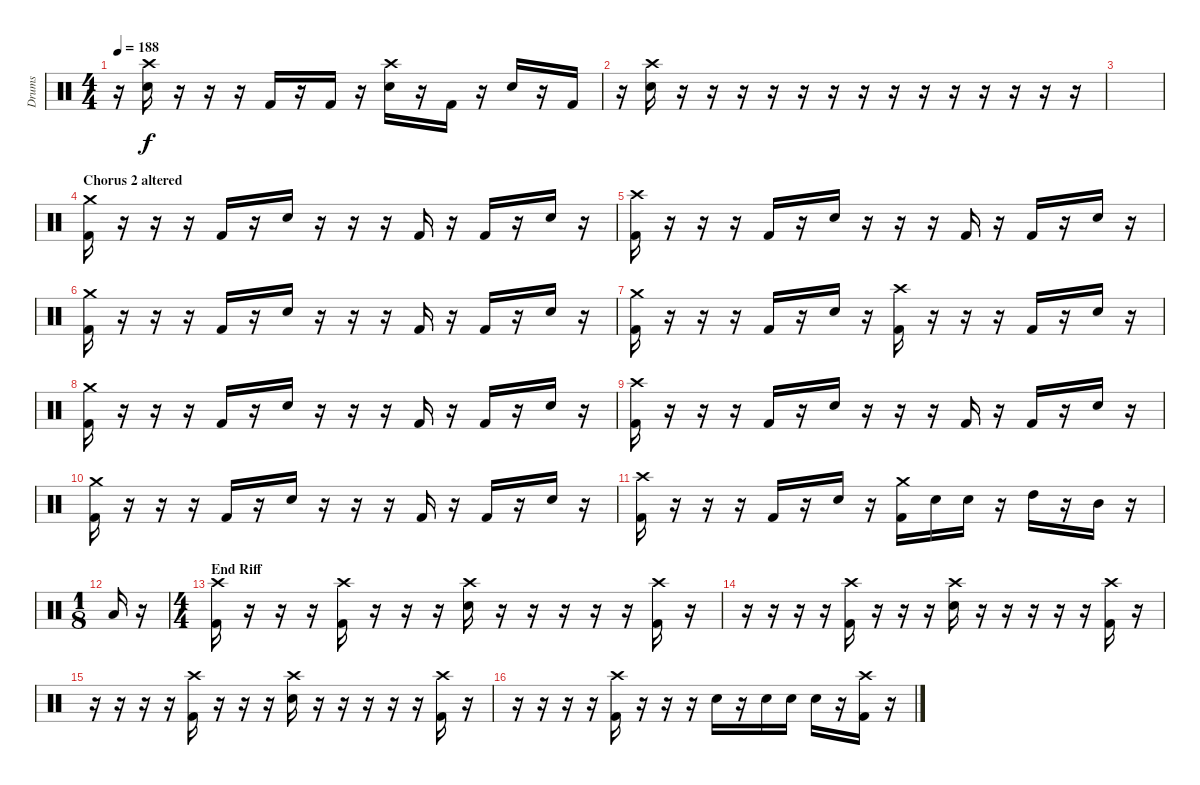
\track ("Drums" "Drums") {instrument percussion}
\staff {score}
\articulation defaults
\ts (4 4)
\tempo 188
\clef neutral
\ks c
r.16{dy f} ("Crash high (hit)" "Electric Snare (hit)").16 r.16 r.16 r.16 "Kick (hit) 2".16 r.16 "Kick (hit) 2".16 r.16 ("Crash high (hit)" "Electric Snare (hit)").16 r.16 "Kick (hit) 2".16 r.16 "Electric Snare (hit)".16 r.16 "Kick (hit) 2".16 |
r.16 ("Crash high (hit)" "Electric Snare (hit)").16 r.16 r.16 r.16 r.16 r.16 r.16 r.16 r.16 r.16 r.16 r.16 r.16 r.16 r.16 |
|
\section ("" "Chorus 2 altered")
("Crash medium (hit)" "Kick (hit) 2").16 r.16 r.16 r.16 "Kick (hit) 2".16 r.16 "Electric Snare (hit)".16 r.16 r.16 r.16 "Kick (hit) 2".16 r.16 "Kick (hit) 2".16 r.16 "Electric Snare (hit)".16 r.16 |
("Crash high (hit)" "Kick (hit) 2").16 r.16 r.16 r.16 "Kick (hit) 2".16 r.16 "Electric Snare (hit)".16 r.16 r.16 r.16 "Kick (hit) 2".16 r.16 "Kick (hit) 2".16 r.16 "Electric Snare (hit)".16 r.16 |
("Crash medium (hit)" "Kick (hit) 2").16 r.16 r.16 r.16 "Kick (hit) 2".16 r.16 "Electric Snare (hit)".16 r.16 r.16 r.16 "Kick (hit) 2".16 r.16 "Kick (hit) 2".16 r.16 "Electric Snare (hit)".16 r.16 |
("Crash medium (hit)" "Kick (hit) 2").16 r.16 r.16 r.16 "Kick (hit) 2".16 r.16 "Electric Snare (hit)".16 r.16 ("Crash high (hit)" "Kick (hit) 2").16 r.16 r.16 r.16 "Kick (hit) 2".16 r.16 "Electric Snare (hit)".16 r.16 |
("Crash medium (hit)" "Kick (hit) 2").16 r.16 r.16 r.16 "Kick (hit) 2".16 r.16 "Electric Snare (hit)".16 r.16 r.16 r.16 "Kick (hit) 2".16 r.16 "Kick (hit) 2".16 r.16 "Electric Snare (hit)".16 r.16 |
("Crash high (hit)" "Kick (hit) 2").16 r.16 r.16 r.16 "Kick (hit) 2".16 r.16 "Electric Snare (hit)".16 r.16 r.16 r.16 "Kick (hit) 2".16 r.16 "Kick (hit) 2".16 r.16 "Electric Snare (hit)".16 r.16 |
("Crash medium (hit)" "Kick (hit) 2").16 r.16 r.16 r.16 "Kick (hit) 2".16 r.16 "Electric Snare (hit)".16 r.16 r.16 r.16 "Kick (hit) 2".16 r.16 "Kick (hit) 2".16 r.16 "Electric Snare (hit)".16 r.16 |
("Crash high (hit)" "Kick (hit) 2").16 r.16 r.16 r.16 "Kick (hit) 2".16 r.16 "Electric Snare (hit)".16 r.16 ("Crash medium (hit)" "Kick (hit) 2").16 "Electric Snare (hit)".16 "Electric Snare (hit)".16 r.16 "High Tom (hit)".16 r.16 "Mid Tom (hit)".16 r.16 |
\ts (1 8)
"Low Tom (hit)".16 r.16 |
\ts (4 4)
\section ("" "End Riff")
("Crash high (hit)" "Kick (hit) 2").16 r.16 r.16 r.16 ("Crash high (hit)" "Kick (hit) 2").16 r.16 r.16 r.16 ("Crash high (hit)" "Electric Snare (hit)").16 r.16 r.16 r.16 r.16 r.16 ("Crash high (hit)" "Kick (hit) 2").16 r.16 |
r.16 r.16 r.16 r.16 ("Crash high (hit)" "Kick (hit) 2").16 r.16 r.16 r.16 ("Crash high (hit)" "Electric Snare (hit)").16 r.16 r.16 r.16 r.16 r.16 ("Crash high (hit)" "Kick (hit) 2").16 r.16 |
r.16 r.16 r.16 r.16 ("Crash high (hit)" "Kick (hit) 2").16 r.16 r.16 r.16 ("Crash high (hit)" "Electric Snare (hit)").16 r.16 r.16 r.16 r.16 r.16 ("Crash high (hit)" "Kick (hit) 2").16 r.16 |
r.16 r.16 r.16 r.16 ("Crash high (hit)" "Kick (hit) 2").16 r.16 r.16 r.16 "Electric Snare (hit)".16 r.16 "Electric Snare (hit)".16 "Electric Snare (hit)".16 "Electric Snare (hit)".16 r.16 ("Crash high (hit)" "Kick (hit) 2").16 r.16
